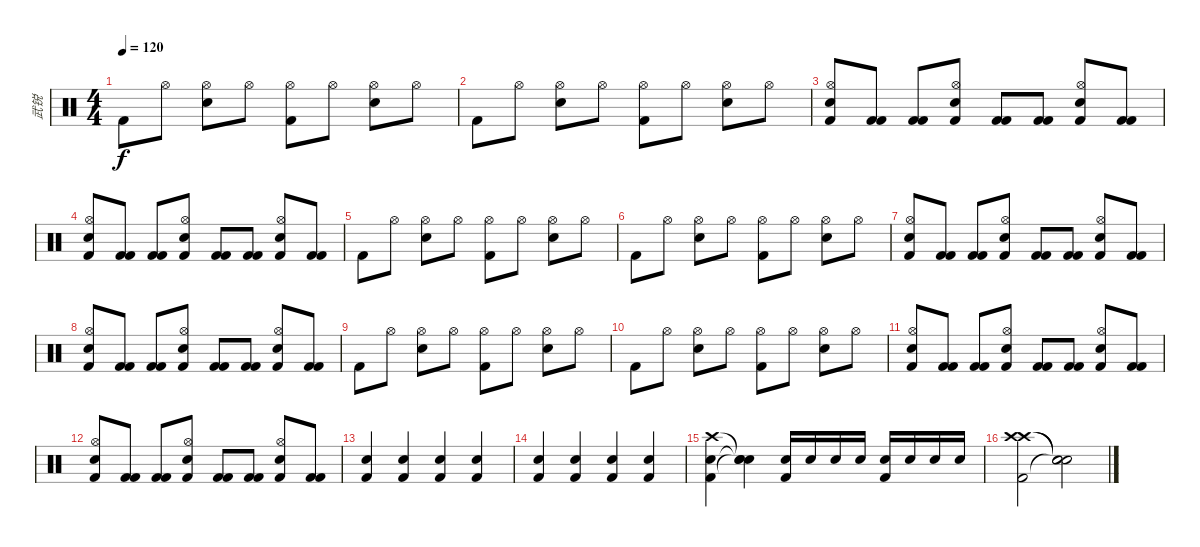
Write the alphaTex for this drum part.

\track ("武锐" "武锐") {instrument percussion}
\staff {score}
\articulation defaults
\ts (4 4)
\tempo 120
\clef neutral
\ks c "Kick (hit) 2".8{dy f} "Hi-Hat (open)".8
("Hi-Hat (open)" "Snare (hit) 2").8 "Hi-Hat (open)".8 ("Hi-Hat (open)" "Kick (hit) 2").8 "Hi-Hat (open)".8 ("Hi-Hat (open)" "Snare (hit) 2").8 "Hi-Hat (open)".8 |
"Kick (hit) 2".8 "Hi-Hat (open)".8 ("Hi-Hat (open)" "Snare (hit) 2").8 "Hi-Hat (open)".8 ("Hi-Hat (open)" "Kick (hit) 2").8 "Hi-Hat (open)".8 ("Hi-Hat (open)" "Snare (hit) 2").8 "Hi-Hat (open)".8 |
("Hi-Hat (open)" "Snare (hit) 2" "Kick (hit) 2").8 ("Kick (hit) 2" "Kick (hit) 2").8 ("Kick (hit) 2" "Kick (hit) 2").8 ("Hi-Hat (open)" "Snare (hit) 2" "Kick (hit) 2").8 ("Kick (hit) 2" "Kick (hit) 2").8 ("Kick (hit) 2" "Kick (hit) 2").8 ("Hi-Hat (open)" "Snare (hit) 2" "Kick (hit) 2").8 ("Kick (hit) 2" "Kick (hit) 2").8 |
("Hi-Hat (open)" "Snare (hit) 2" "Kick (hit) 2").8 ("Kick (hit) 2" "Kick (hit) 2").8 ("Kick (hit) 2" "Kick (hit) 2").8 ("Hi-Hat (open)" "Snare (hit) 2" "Kick (hit) 2").8 ("Kick (hit) 2" "Kick (hit) 2").8 ("Kick (hit) 2" "Kick (hit) 2").8 ("Hi-Hat (open)" "Snare (hit) 2" "Kick (hit) 2").8 ("Kick (hit) 2" "Kick (hit) 2").8 |
"Kick (hit) 2".8 "Hi-Hat (open)".8 ("Hi-Hat (open)" "Snare (hit) 2").8 "Hi-Hat (open)".8 ("Hi-Hat (open)" "Kick (hit) 2").8 "Hi-Hat (open)".8 ("Hi-Hat (open)" "Snare (hit) 2").8 "Hi-Hat (open)".8 |
"Kick (hit) 2".8 "Hi-Hat (open)".8 ("Hi-Hat (open)" "Snare (hit) 2").8 "Hi-Hat (open)".8 ("Hi-Hat (open)" "Kick (hit) 2").8 "Hi-Hat (open)".8 ("Hi-Hat (open)" "Snare (hit) 2").8 "Hi-Hat (open)".8 |
("Hi-Hat (open)" "Snare (hit) 2" "Kick (hit) 2").8 ("Kick (hit) 2" "Kick (hit) 2").8 ("Kick (hit) 2" "Kick (hit) 2").8 ("Hi-Hat (open)" "Snare (hit) 2" "Kick (hit) 2").8 ("Kick (hit) 2" "Kick (hit) 2").8 ("Kick (hit) 2" "Kick (hit) 2").8 ("Hi-Hat (open)" "Snare (hit) 2" "Kick (hit) 2").8 ("Kick (hit) 2" "Kick (hit) 2").8 |
("Hi-Hat (open)" "Snare (hit) 2" "Kick (hit) 2").8 ("Kick (hit) 2" "Kick (hit) 2").8 ("Kick (hit) 2" "Kick (hit) 2").8 ("Hi-Hat (open)" "Snare (hit) 2" "Kick (hit) 2").8 ("Kick (hit) 2" "Kick (hit) 2").8 ("Kick (hit) 2" "Kick (hit) 2").8 ("Hi-Hat (open)" "Snare (hit) 2" "Kick (hit) 2").8 ("Kick (hit) 2" "Kick (hit) 2").8 |
"Kick (hit) 2".8 "Hi-Hat (open)".8 ("Hi-Hat (open)" "Snare (hit) 2").8 "Hi-Hat (open)".8 ("Hi-Hat (open)" "Kick (hit) 2").8 "Hi-Hat (open)".8 ("Hi-Hat (open)" "Snare (hit) 2").8 "Hi-Hat (open)".8 |
"Kick (hit) 2".8 "Hi-Hat (open)".8 ("Hi-Hat (open)" "Snare (hit) 2").8 "Hi-Hat (open)".8 ("Hi-Hat (open)" "Kick (hit) 2").8 "Hi-Hat (open)".8 ("Hi-Hat (open)" "Snare (hit) 2").8 "Hi-Hat (open)".8 |
("Hi-Hat (open)" "Snare (hit) 2" "Kick (hit) 2").8 ("Kick (hit) 2" "Kick (hit) 2").8 ("Kick (hit) 2" "Kick (hit) 2").8 ("Hi-Hat (open)" "Snare (hit) 2" "Kick (hit) 2").8 ("Kick (hit) 2" "Kick (hit) 2").8 ("Kick (hit) 2" "Kick (hit) 2").8 ("Hi-Hat (open)" "Snare (hit) 2" "Kick (hit) 2").8 ("Kick (hit) 2" "Kick (hit) 2").8 |
("Hi-Hat (open)" "Snare (hit) 2" "Kick (hit) 2").8 ("Kick (hit) 2" "Kick (hit) 2").8 ("Kick (hit) 2" "Kick (hit) 2").8 ("Hi-Hat (open)" "Snare (hit) 2" "Kick (hit) 2").8 ("Kick (hit) 2" "Kick (hit) 2").8 ("Kick (hit) 2" "Kick (hit) 2").8 ("Hi-Hat (open)" "Snare (hit) 2" "Kick (hit) 2").8 ("Kick (hit) 2" "Kick (hit) 2").8 |
("Kick (hit) 2" "Snare (hit) 2").4 ("Kick (hit) 2" "Snare (hit) 2").4 ("Kick (hit) 2" "Snare (hit) 2").4 ("Kick (hit) 2" "Snare (hit) 2").4 |
("Kick (hit) 2" "Snare (hit) 2").4 ("Kick (hit) 2" "Snare (hit) 2").4 ("Kick (hit) 2" "Snare (hit) 2").4 ("Kick (hit) 2" "Snare (hit) 2").4 |
("Crash high (hit)" "Snare (hit) 2" "Kick (hit) 2").4 ("Snare (hit)"{t} "Snare (hit)"{t} "Snare (hit)"{t}).4 ("Kick (hit) 2" "Snare (hit) 2").16 "Snare (hit) 2".16 "Snare (hit) 2".16 "Snare (hit) 2".16 ("Kick (hit) 2" "Snare (hit) 2").16 "Snare (hit) 2".16 "Snare (hit) 2".16 "Snare (hit) 2".16 |
("Crash high (hit)" "Crash high (hit)" "Kick (hit) 2").2 ("Snare (hit)"{t} "Snare (hit)"{t} "Snare (hit)"{t}).2
